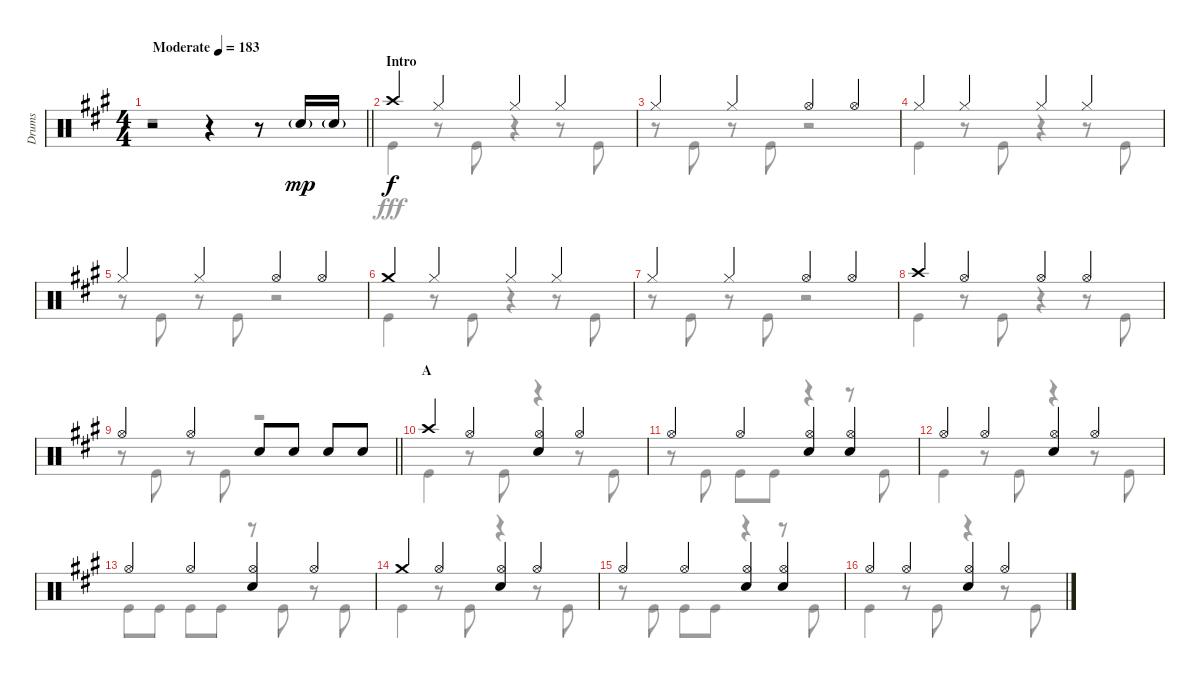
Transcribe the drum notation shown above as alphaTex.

\track ("Drums" "Drums") {instrument percussion}
\staff {score}
\articulation defaults
\voice
\ts (4 4)
\tempo (183 "Moderate")
\clef neutral
\barLineRight lightlight
\ks a
r.2{dy mp} r.4 r.8 "Snare (hit) 2"{g}.16 "Snare (hit) 2"{g}.16 |
\section ("" "Intro")
"Crash high (hit)".4{dy f} "Hi-Hat (closed)".4 "Hi-Hat (closed)".4 "Hi-Hat (closed)".4 |
"Hi-Hat (closed)".4 "Hi-Hat (closed)".4 "Hi-Hat (open)".4 "Hi-Hat (open)".4 |
"Hi-Hat (closed)".4 "Hi-Hat (closed)".4 "Hi-Hat (closed)".4 "Hi-Hat (closed)".4 |
"Hi-Hat (closed)".4 "Hi-Hat (closed)".4 "Hi-Hat (open)".4 "Hi-Hat (open)".4 |
"Crash medium (hit)".4 "Hi-Hat (closed)".4 "Hi-Hat (closed)".4 "Hi-Hat (closed)".4 |
"Hi-Hat (closed)".4 "Hi-Hat (closed)".4 "Hi-Hat (open)".4 "Hi-Hat (open)".4 |
"Crash high (hit)".4 "Hi-Hat (open)".4 "Hi-Hat (open)".4 "Hi-Hat (open)".4 |
\barLineRight lightlight "Hi-Hat (open)".4 "Hi-Hat (open)".4 "Snare (hit) 2".8 "Snare (hit) 2".8 "Snare (hit) 2".8 "Snare (hit) 2".8
|
\section ("" "A")
"Crash high (hit)".4 "Hi-Hat (open)".4 ("Hi-Hat (open)" "Snare (hit) 2").4 "Hi-Hat (open)".4 |
"Hi-Hat (open)".4 "Hi-Hat (open)".4 ("Hi-Hat (open)" "Snare (hit) 2").4 ("Hi-Hat (open)" "Snare (hit) 2").4 |
"Hi-Hat (open)".4 "Hi-Hat (open)".4 ("Hi-Hat (open)" "Snare (hit) 2").4 "Hi-Hat (open)".4 |
"Hi-Hat (open)".4 "Hi-Hat (open)".4 ("Hi-Hat (open)" "Snare (hit) 2").4 "Hi-Hat (open)".4 |
"Crash medium (hit)".4 "Hi-Hat (open)".4 ("Hi-Hat (open)" "Snare (hit) 2").4 "Hi-Hat (open)".4 |
"Hi-Hat (open)".4 "Hi-Hat (open)".4 ("Hi-Hat (open)" "Snare (hit) 2").4 ("Hi-Hat (open)" "Snare (hit) 2").4 |
"Hi-Hat (open)".4 "Hi-Hat (open)".4 ("Hi-Hat (open)" "Snare (hit) 2").4 "Hi-Hat (open)".4
\voice
\clef neutral
\ottava regular
\simile none
\barLineRight lightlight
\ks a
r.1{dy fff} |
"Kick (hit)".4 r.8 "Kick (hit)".8 r.4 r.8 "Kick (hit)".8 |
r.8 "Kick (hit)".8 r.8 "Kick (hit)".8 r.2 |
"Kick (hit)".4 r.8 "Kick (hit)".8 r.4 r.8 "Kick (hit)".8 |
r.8 "Kick (hit)".8 r.8 "Kick (hit)".8 r.2 |
"Kick (hit)".4 r.8 "Kick (hit)".8 r.4 r.8 "Kick (hit)".8 |
r.8 "Kick (hit)".8 r.8 "Kick (hit)".8 r.2 |
"Kick (hit)".4 r.8 "Kick (hit)".8 r.4 r.8 "Kick (hit)".8 |
\barLineRight lightlight
r.8 "Kick (hit)".8 r.8 "Kick (hit)".8 r.2 |
"Kick (hit)".4 r.8 "Kick (hit)".8 r.4 r.8 "Kick (hit)".8 |
r.8 "Kick (hit)".8 "Kick (hit)".8 "Kick (hit)".8 r.4 r.8 "Kick (hit)".8 |
"Kick (hit)".4 r.8 "Kick (hit)".8 r.4 r.8 "Kick (hit)".8 |
"Kick (hit)".8 "Kick (hit)".8 "Kick (hit)".8 "Kick (hit)".8 r.8 "Kick (hit)".8 r.8 "Kick (hit)".8 |
"Kick (hit)".4 r.8 "Kick (hit)".8 r.4 r.8 "Kick (hit)".8 |
r.8 "Kick (hit)".8 "Kick (hit)".8 "Kick (hit)".8 r.4 r.8 "Kick (hit)".8 |
"Kick (hit)".4 r.8 "Kick (hit)".8 r.4 r.8 "Kick (hit)".8
